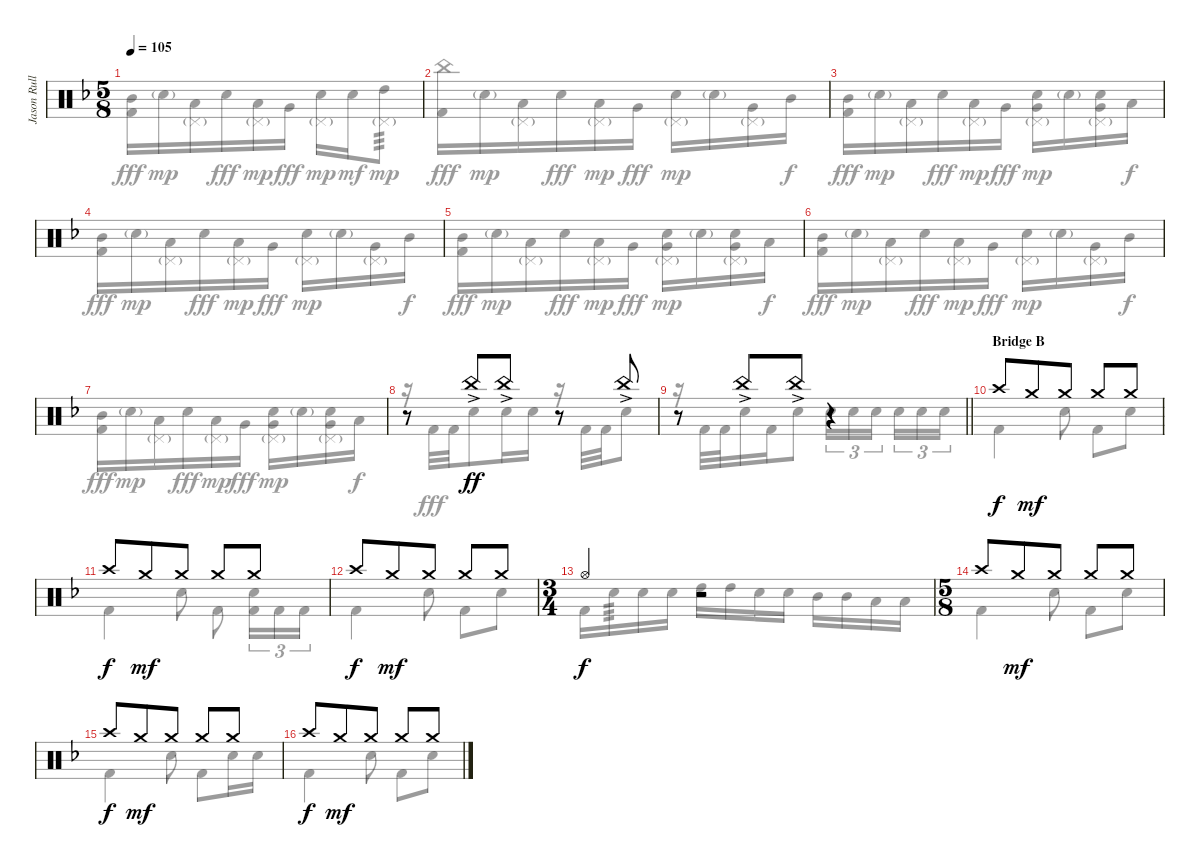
\track ("Jason Rullo Drums" "Jason Rull") {instrument percussion}
\staff {score}
\articulation defaults
\voice
\ts (5 8)
\tempo 105
\clef neutral
\ks dminor
|
|
|
|
|
|
|
r.8 "China (hit)"{ac}.8{dy ff} "China (hit)"{ac}.8 r.8 "China (hit)"{ac}.8 |
\barLineRight lightlight
r.8 "China (hit)"{ac}.8 "China (hit)"{ac}.8 r.4 |
\section ("" "Bridge B")
"Crash high (hit)".8{dy f} "Crash medium (hit)".8{dy mf} "Crash medium (hit)".8 "Crash medium (hit)".8 "Crash medium (hit)".8 |
"Crash high (hit)".8{dy f} "Crash medium (hit)".8{dy mf} "Crash medium (hit)".8 "Crash medium (hit)".8 "Crash medium (hit)".8 |
"Crash high (hit)".8{dy f} "Crash medium (hit)".8{dy mf} "Crash medium (hit)".8 "Crash medium (hit)".8 "Crash medium (hit)".8 |
\ts (3 4)
"Hi-Hat (open)".4{dy f} r.2 |
\ts (5 8)
"Crash high (hit)".8 "Crash medium (hit)".8{dy mf} "Crash medium (hit)".8 "Crash medium (hit)".8 "Crash medium (hit)".8 |
"Crash high (hit)".8{dy f} "Crash medium (hit)".8{dy mf} "Crash medium (hit)".8 "Crash medium (hit)".8 "Crash medium (hit)".8 |
"Crash high (hit)".8{dy f} "Crash medium (hit)".8{dy mf} "Crash medium (hit)".8 "Crash medium (hit)".8 "Crash medium (hit)".8
\voice
\clef neutral
\ottava regular
\simile none
\ks dminor
("Mid Tom (hit)" "Kick (hit) 2").16{dy fff} "Electric Snare (hit)"{g}.16{dy mp} ("Low Tom (hit)" "Pedal Hi-Hat (hit)"{g}).16 "Electric Snare (hit)".16{dy fff} ("Low Tom (hit)" "Pedal Hi-Hat (hit)"{g}).16{dy mp} "Very Low Tom (hit)".16{dy fff} ("Electric Snare (hit)" "Pedal Hi-Hat (hit)"{g}).16{dy mp} "Electric Snare (hit)".16{dy mf} ("High Tom (hit)" "Pedal Hi-Hat (hit)"{g}).8{tp 3 dy mp} |
("China (hit)" "Kick (hit) 2").16{dy fff} "Electric Snare (hit)"{g}.16{dy mp} ("Low Tom (hit)" "Pedal Hi-Hat (hit)"{g}).16 "Electric Snare (hit)".16{dy fff} ("Low Tom (hit)" "Pedal Hi-Hat (hit)"{g}).16{dy mp} "Very Low Tom (hit)".16{dy fff} ("Electric Snare (hit)" "Pedal Hi-Hat (hit)"{g}).16{dy mp} "Electric Snare (hit)"{g}.16 ("Very Low Tom (hit)" "Pedal Hi-Hat (hit)"{g}).16 "Mid Tom (hit)".16{dy f} |
("Mid Tom (hit)" "Kick (hit) 2").16{dy fff} "Electric Snare (hit)"{g}.16{dy mp} ("Low Tom (hit)" "Pedal Hi-Hat (hit)"{g}).16 "Electric Snare (hit)".16{dy fff} ("Low Tom (hit)" "Pedal Hi-Hat (hit)"{g}).16{dy mp} "Very Low Tom (hit)".16{dy fff} ("Electric Snare (hit)" "Very Low Tom (hit)" "Pedal Hi-Hat (hit)"{g}).16{dy mp} "Electric Snare (hit)"{g}.16 ("Electric Snare (hit)" "Very Low Tom (hit)" "Pedal Hi-Hat (hit)"{g}).16 "Low Tom (hit)".16{dy f} |
("Mid Tom (hit)" "Kick (hit) 2").16{dy fff} "Electric Snare (hit)"{g}.16{dy mp} ("Low Tom (hit)" "Pedal Hi-Hat (hit)"{g}).16 "Electric Snare (hit)".16{dy fff} ("Low Tom (hit)" "Pedal Hi-Hat (hit)"{g}).16{dy mp} "Very Low Tom (hit)".16{dy fff} ("Electric Snare (hit)" "Pedal Hi-Hat (hit)"{g}).16{dy mp} "Electric Snare (hit)"{g}.16 ("Very Low Tom (hit)" "Pedal Hi-Hat (hit)"{g}).16 "Mid Tom (hit)".16{dy f} |
("Mid Tom (hit)" "Kick (hit) 2").16{dy fff} "Electric Snare (hit)"{g}.16{dy mp} ("Low Tom (hit)" "Pedal Hi-Hat (hit)"{g}).16 "Electric Snare (hit)".16{dy fff} ("Low Tom (hit)" "Pedal Hi-Hat (hit)"{g}).16{dy mp} "Very Low Tom (hit)".16{dy fff} ("Electric Snare (hit)" "Very Low Tom (hit)" "Pedal Hi-Hat (hit)"{g}).16{dy mp} "Electric Snare (hit)"{g}.16 ("Electric Snare (hit)" "Very Low Tom (hit)" "Pedal Hi-Hat (hit)"{g}).16 "Low Tom (hit)".16{dy f} |
("Mid Tom (hit)" "Kick (hit) 2").16{dy fff} "Electric Snare (hit)"{g}.16{dy mp} ("Low Tom (hit)" "Pedal Hi-Hat (hit)"{g}).16 "Electric Snare (hit)".16{dy fff} ("Low Tom (hit)" "Pedal Hi-Hat (hit)"{g}).16{dy mp} "Very Low Tom (hit)".16{dy fff} ("Electric Snare (hit)" "Pedal Hi-Hat (hit)"{g}).16{dy mp} "Electric Snare (hit)"{g}.16 ("Very Low Tom (hit)" "Pedal Hi-Hat (hit)"{g}).16 "Mid Tom (hit)".16{dy f} |
("Mid Tom (hit)" "Kick (hit) 2").16{dy fff} "Electric Snare (hit)"{g}.16{dy mp} ("Low Tom (hit)" "Pedal Hi-Hat (hit)"{g}).16 "Electric Snare (hit)".16{dy fff} ("Low Tom (hit)" "Pedal Hi-Hat (hit)"{g}).16{dy mp} "Very Low Tom (hit)".16{dy fff} ("Electric Snare (hit)" "Very Low Tom (hit)" "Pedal Hi-Hat (hit)"{g}).16{dy mp} "Electric Snare (hit)"{g}.16 ("Electric Snare (hit)" "Very Low Tom (hit)" "Pedal Hi-Hat (hit)"{g}).16 "Low Tom (hit)".16{dy f} |
r.16 "Kick (hit) 2".32{dy fff} "Kick (hit) 2".32 "Electric Snare (hit)".8 "Electric Snare (hit)".16 "Electric Snare (hit)".16 r.16 "Kick (hit) 2".32 "Kick (hit) 2".32 "Electric Snare (hit)".8 |
\barLineRight lightlight
r.16 "Kick (hit) 2".32 "Kick (hit) 2".32 "Electric Snare (hit)".16 "Kick (hit) 2".16 "Electric Snare (hit)".8 "Electric Snare (hit)".16{tu (3 2)} "Electric Snare (hit)".16{tu (3 2)} "Electric Snare (hit)".16{tu (3 2)} "Electric Snare (hit)".16{tu (3 2)} "Electric Snare (hit)".16{tu (3 2)} "Electric Snare (hit)".16{tu (3 2)} |
"Kick (hit) 2".4 "Electric Snare (hit)".8 "Kick (hit) 2".8 "Electric Snare (hit)".8 |
"Kick (hit) 2".4 "Electric Snare (hit)".8 "Kick (hit) 2".8 ("Electric Snare (hit)" "Kick (hit) 2").16{tu (3 2)} "Kick (hit) 2".16{tu (3 2)} "Kick (hit) 2".16{tu (3 2)} |
"Kick (hit) 2".4 "Electric Snare (hit)".8 "Kick (hit) 2".8 "Electric Snare (hit)".8 |
"Kick (hit) 2".16 "Electric Snare (hit)".16{tp 3} "Electric Snare (hit)".16 "Electric Snare (hit)".16 "High Tom (hit)".16 "High Tom (hit)".16 "Electric Snare (hit)".16 "Electric Snare (hit)".16 "Mid Tom (hit)".16 "Mid Tom (hit)".16 "Low Tom (hit)".16 "Low Tom (hit)".16 |
"Kick (hit) 2".4 "Electric Snare (hit)".8 "Kick (hit) 2".8 "Electric Snare (hit)".8 |
"Kick (hit) 2".4 "Electric Snare (hit)".8 "Kick (hit) 2".8 "Electric Snare (hit)".16 "Electric Snare (hit)".16 |
"Kick (hit) 2".4 "Electric Snare (hit)".8 "Kick (hit) 2".8 "Electric Snare (hit)".8
